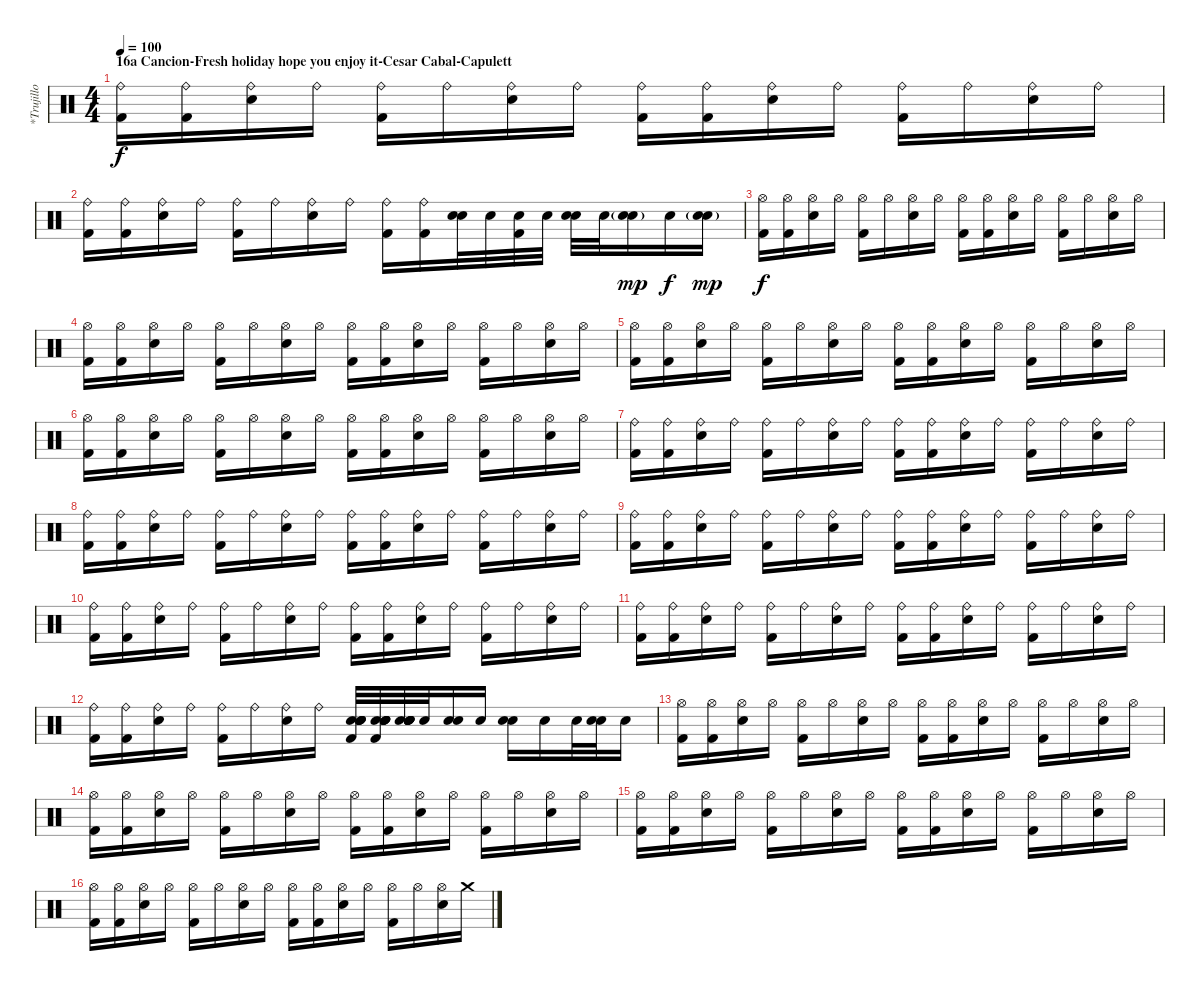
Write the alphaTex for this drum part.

\track ("*Trujillo" "*Trujillo") {instrument percussion}
\staff {score}
\articulation defaults
\ts (4 4)
\section ("" "16a Cancion-Fresh holiday hope you enjoy it-Cesar Cabal-Capulett")
\tempo 100
\clef neutral
\ks c
("Ride (bell)" "Kick (hit) 2").16{dy f} ("Ride (bell)" "Kick (hit) 2").16 ("Ride (bell)" "Electric Snare (hit)").16 "Ride (bell)".16 ("Ride (bell)" "Kick (hit) 2").16 "Ride (bell)".16 ("Ride (bell)" "Electric Snare (hit)").16 "Ride (bell)".16 ("Ride (bell)" "Kick (hit) 2").16 ("Ride (bell)" "Kick (hit) 2").16 ("Ride (bell)" "Electric Snare (hit)").16 "Ride (bell)".16 ("Ride (bell)" "Kick (hit) 2").16 "Ride (bell)".16 ("Ride (bell)" "Electric Snare (hit)").16 "Ride (bell)".16 |
("Ride (bell)" "Kick (hit) 2").16 ("Ride (bell)" "Kick (hit) 2").16 ("Ride (bell)" "Electric Snare (hit)").16 "Ride (bell)".16 ("Ride (bell)" "Kick (hit) 2").16 "Ride (bell)".16 ("Ride (bell)" "Electric Snare (hit)").16 "Ride (bell)".16 ("Ride (bell)" "Kick (hit) 2").16 ("Ride (bell)" "Kick (hit) 2").16 ("Electric Snare (hit)" "Electric Snare (hit)"{x}).32 "Electric Snare (hit)".32 ("Electric Snare (hit)" "Kick (hit) 2"{x}).32 "Electric Snare (hit)".32 ("Electric Snare (hit)" "Electric Snare (hit)"{x}).32 "Electric Snare (hit)".32 ("Electric Snare (hit)" "Electric Snare (hit)"{g}).16{dy mp} "Electric Snare (hit)".16{dy f} ("Electric Snare (hit)" "Electric Snare (hit)"{g}).16{dy mp} |
("Hi-Hat (open)" "Kick (hit) 2").16{dy f} ("Hi-Hat (open)" "Kick (hit) 2").16 ("Hi-Hat (open)" "Electric Snare (hit)").16 "Hi-Hat (open)".16 ("Hi-Hat (open)" "Kick (hit) 2").16 "Hi-Hat (open)".16 ("Hi-Hat (open)" "Electric Snare (hit)").16 "Hi-Hat (open)".16 ("Hi-Hat (open)" "Kick (hit) 2").16 ("Hi-Hat (open)" "Kick (hit) 2").16 ("Hi-Hat (open)" "Electric Snare (hit)").16 "Hi-Hat (open)".16 ("Hi-Hat (open)" "Kick (hit) 2").16 "Hi-Hat (open)".16 ("Hi-Hat (open)" "Electric Snare (hit)").16 "Hi-Hat (open)".16 |
("Hi-Hat (open)" "Kick (hit) 2").16 ("Hi-Hat (open)" "Kick (hit) 2").16 ("Hi-Hat (open)" "Electric Snare (hit)").16 "Hi-Hat (open)".16 ("Hi-Hat (open)" "Kick (hit) 2").16 "Hi-Hat (open)".16 ("Hi-Hat (open)" "Electric Snare (hit)").16 "Hi-Hat (open)".16 ("Hi-Hat (open)" "Kick (hit) 2").16 ("Hi-Hat (open)" "Kick (hit) 2").16 ("Hi-Hat (open)" "Electric Snare (hit)").16 "Hi-Hat (open)".16 ("Hi-Hat (open)" "Kick (hit) 2").16 "Hi-Hat (open)".16 ("Hi-Hat (open)" "Electric Snare (hit)").16 "Hi-Hat (open)".16 |
("Hi-Hat (open)" "Kick (hit) 2").16 ("Hi-Hat (open)" "Kick (hit) 2").16 ("Hi-Hat (open)" "Electric Snare (hit)").16 "Hi-Hat (open)".16 ("Hi-Hat (open)" "Kick (hit) 2").16 "Hi-Hat (open)".16 ("Hi-Hat (open)" "Electric Snare (hit)").16 "Hi-Hat (open)".16 ("Hi-Hat (open)" "Kick (hit) 2").16 ("Hi-Hat (open)" "Kick (hit) 2").16 ("Hi-Hat (open)" "Electric Snare (hit)").16 "Hi-Hat (open)".16 ("Hi-Hat (open)" "Kick (hit) 2").16 "Hi-Hat (open)".16 ("Hi-Hat (open)" "Electric Snare (hit)").16 "Hi-Hat (open)".16 |
("Hi-Hat (open)" "Kick (hit) 2").16 ("Hi-Hat (open)" "Kick (hit) 2").16 ("Hi-Hat (open)" "Electric Snare (hit)").16 "Hi-Hat (open)".16 ("Hi-Hat (open)" "Kick (hit) 2").16 "Hi-Hat (open)".16 ("Hi-Hat (open)" "Electric Snare (hit)").16 "Hi-Hat (open)".16 ("Hi-Hat (open)" "Kick (hit) 2").16 ("Hi-Hat (open)" "Kick (hit) 2").16 ("Hi-Hat (open)" "Electric Snare (hit)").16 "Hi-Hat (open)".16 ("Hi-Hat (open)" "Kick (hit) 2").16 "Hi-Hat (open)".16 ("Hi-Hat (open)" "Electric Snare (hit)").16 "Hi-Hat (open)".16 |
("Ride (bell)" "Kick (hit) 2").16 ("Ride (bell)" "Kick (hit) 2").16 ("Ride (bell)" "Electric Snare (hit)").16 "Ride (bell)".16 ("Ride (bell)" "Kick (hit) 2").16 "Ride (bell)".16 ("Ride (bell)" "Electric Snare (hit)").16 "Ride (bell)".16 ("Ride (bell)" "Kick (hit) 2").16 ("Ride (bell)" "Kick (hit) 2").16 ("Ride (bell)" "Electric Snare (hit)").16 "Ride (bell)".16 ("Ride (bell)" "Kick (hit) 2").16 "Ride (bell)".16 ("Ride (bell)" "Electric Snare (hit)").16 "Ride (bell)".16 |
("Ride (bell)" "Kick (hit) 2").16 ("Ride (bell)" "Kick (hit) 2").16 ("Ride (bell)" "Electric Snare (hit)").16 "Ride (bell)".16 ("Ride (bell)" "Kick (hit) 2").16 "Ride (bell)".16 ("Ride (bell)" "Electric Snare (hit)").16 "Ride (bell)".16 ("Ride (bell)" "Kick (hit) 2").16 ("Ride (bell)" "Kick (hit) 2").16 ("Ride (bell)" "Electric Snare (hit)").16 "Ride (bell)".16 ("Ride (bell)" "Kick (hit) 2").16 "Ride (bell)".16 ("Ride (bell)" "Electric Snare (hit)").16 "Ride (bell)".16 |
("Ride (bell)" "Kick (hit) 2").16 ("Ride (bell)" "Kick (hit) 2").16 ("Ride (bell)" "Electric Snare (hit)").16 "Ride (bell)".16 ("Ride (bell)" "Kick (hit) 2").16 "Ride (bell)".16 ("Ride (bell)" "Electric Snare (hit)").16 "Ride (bell)".16 ("Ride (bell)" "Kick (hit) 2").16 ("Ride (bell)" "Kick (hit) 2").16 ("Ride (bell)" "Electric Snare (hit)").16 "Ride (bell)".16 ("Ride (bell)" "Kick (hit) 2").16 "Ride (bell)".16 ("Ride (bell)" "Electric Snare (hit)").16 "Ride (bell)".16 |
("Ride (bell)" "Kick (hit) 2").16 ("Ride (bell)" "Kick (hit) 2").16 ("Ride (bell)" "Electric Snare (hit)").16 "Ride (bell)".16 ("Ride (bell)" "Kick (hit) 2").16 "Ride (bell)".16 ("Ride (bell)" "Electric Snare (hit)").16 "Ride (bell)".16 ("Ride (bell)" "Kick (hit) 2").16 ("Ride (bell)" "Kick (hit) 2").16 ("Ride (bell)" "Electric Snare (hit)").16 "Ride (bell)".16 ("Ride (bell)" "Kick (hit) 2").16 "Ride (bell)".16 ("Ride (bell)" "Electric Snare (hit)").16 "Ride (bell)".16 |
("Ride (bell)" "Kick (hit) 2").16 ("Ride (bell)" "Kick (hit) 2").16 ("Ride (bell)" "Electric Snare (hit)").16 "Ride (bell)".16 ("Ride (bell)" "Kick (hit) 2").16 "Ride (bell)".16 ("Ride (bell)" "Electric Snare (hit)").16 "Ride (bell)".16 ("Ride (bell)" "Kick (hit) 2").16 ("Ride (bell)" "Kick (hit) 2").16 ("Ride (bell)" "Electric Snare (hit)").16 "Ride (bell)".16 ("Ride (bell)" "Kick (hit) 2").16 "Ride (bell)".16 ("Ride (bell)" "Electric Snare (hit)").16 "Ride (bell)".16 |
("Ride (bell)" "Kick (hit) 2").16 ("Ride (bell)" "Kick (hit) 2").16 ("Ride (bell)" "Electric Snare (hit)").16 "Ride (bell)".16 ("Ride (bell)" "Kick (hit) 2").16 "Ride (bell)".16 ("Ride (bell)" "Electric Snare (hit)").16 "Ride (bell)".16 ("Snare (hit)"{x} "Snare (hit)"{x} "Electric Snare (hit)" "Snare (hit)"{x} "Snare (hit)"{x} "Kick (hit) 2"{x}).32 ("Snare (hit)"{x} "Snare (hit)"{x} "Electric Snare (hit)"{x} "Snare (hit)"{x} "Snare (hit)"{x} "Kick (hit) 2"{x}).32 ("Snare (hit)"{x} "Snare (hit)"{x} "Electric Snare (hit)" "Snare (hit)"{x} "Electric Snare (hit)"{x} "Snare (hit)"{x}).32 "Electric Snare (hit)".32 ("Electric Snare (hit)" "Electric Snare (hit)").16 "Electric Snare (hit)".16 ("Electric Snare (hit)" "Electric Snare (hit)").16 "Electric Snare (hit)".16 "Electric Snare (hit)".32 ("Electric Snare (hit)" "Electric Snare (hit)").32 "Electric Snare (hit)".16 |
("Hi-Hat (open)" "Kick (hit) 2").16 ("Hi-Hat (open)" "Kick (hit) 2").16 ("Hi-Hat (open)" "Electric Snare (hit)").16 "Hi-Hat (open)".16 ("Hi-Hat (open)" "Kick (hit) 2").16 "Hi-Hat (open)".16 ("Hi-Hat (open)" "Electric Snare (hit)").16 "Hi-Hat (open)".16 ("Hi-Hat (open)" "Kick (hit) 2").16 ("Hi-Hat (open)" "Kick (hit) 2").16 ("Hi-Hat (open)" "Electric Snare (hit)").16 "Hi-Hat (open)".16 ("Hi-Hat (open)" "Kick (hit) 2").16 "Hi-Hat (open)".16 ("Hi-Hat (open)" "Electric Snare (hit)").16 "Hi-Hat (open)".16 |
("Hi-Hat (open)" "Kick (hit) 2").16 ("Hi-Hat (open)" "Kick (hit) 2").16 ("Hi-Hat (open)" "Electric Snare (hit)").16 "Hi-Hat (open)".16 ("Hi-Hat (open)" "Kick (hit) 2").16 "Hi-Hat (open)".16 ("Hi-Hat (open)" "Electric Snare (hit)").16 "Hi-Hat (open)".16 ("Hi-Hat (open)" "Kick (hit) 2").16 ("Hi-Hat (open)" "Kick (hit) 2").16 ("Hi-Hat (open)" "Electric Snare (hit)").16 "Hi-Hat (open)".16 ("Hi-Hat (open)" "Kick (hit) 2").16 "Hi-Hat (open)".16 ("Hi-Hat (open)" "Electric Snare (hit)").16 "Hi-Hat (open)".16 |
("Hi-Hat (open)" "Kick (hit) 2").16 ("Hi-Hat (open)" "Kick (hit) 2").16 ("Hi-Hat (open)" "Electric Snare (hit)").16 "Hi-Hat (open)".16 ("Hi-Hat (open)" "Kick (hit) 2").16 "Hi-Hat (open)".16 ("Hi-Hat (open)" "Electric Snare (hit)").16 "Hi-Hat (open)".16 ("Hi-Hat (open)" "Kick (hit) 2").16 ("Hi-Hat (open)" "Kick (hit) 2").16 ("Hi-Hat (open)" "Electric Snare (hit)").16 "Hi-Hat (open)".16 ("Hi-Hat (open)" "Kick (hit) 2").16 "Hi-Hat (open)".16 ("Hi-Hat (open)" "Electric Snare (hit)").16 "Hi-Hat (open)".16 |
("Hi-Hat (open)" "Kick (hit) 2").16 ("Hi-Hat (open)" "Kick (hit) 2").16 ("Hi-Hat (open)" "Electric Snare (hit)").16 "Hi-Hat (open)".16 ("Hi-Hat (open)" "Kick (hit) 2").16 "Hi-Hat (open)".16 ("Hi-Hat (open)" "Electric Snare (hit)").16 "Hi-Hat (open)".16 ("Hi-Hat (open)" "Kick (hit) 2").16 ("Hi-Hat (open)" "Kick (hit) 2").16 ("Hi-Hat (open)" "Electric Snare (hit)").16 "Hi-Hat (open)".16 ("Hi-Hat (open)" "Kick (hit) 2").16 "Hi-Hat (open)".16 ("Hi-Hat (open)" "Electric Snare (hit)").16 "Crash medium (hit)".16
